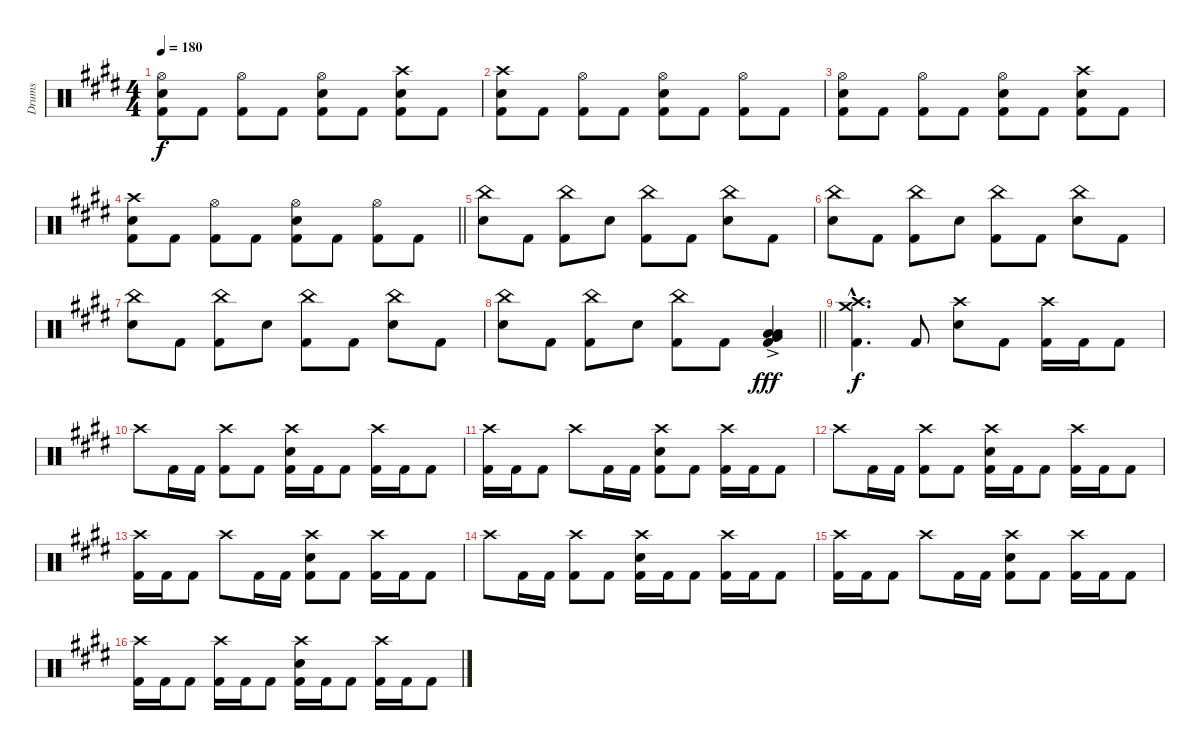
\track ("Drums" "Drums") {instrument percussion}
\staff {score}
\articulation defaults
\ts (4 4)
\tempo 180
\clef neutral
\ks c#minor
("Hi-Hat (open)" "Snare (hit) 2" "Kick (hit) 2").8{dy f} "Kick (hit) 2".8 ("Hi-Hat (open)" "Kick (hit) 2").8 "Kick (hit) 2".8 ("Hi-Hat (open)" "Snare (hit) 2" "Kick (hit) 2").8 "Kick (hit) 2".8 ("Crash high (hit)" "Snare (hit) 2" "Kick (hit) 2").8 "Kick (hit) 2".8 |
("Crash high (hit)" "Snare (hit) 2" "Kick (hit) 2").8 "Kick (hit) 2".8 ("Hi-Hat (open)" "Kick (hit) 2").8 "Kick (hit) 2".8 ("Hi-Hat (open)" "Snare (hit) 2" "Kick (hit) 2").8 "Kick (hit) 2".8 ("Hi-Hat (open)" "Kick (hit) 2").8 "Kick (hit) 2".8 |
("Hi-Hat (open)" "Snare (hit) 2" "Kick (hit) 2").8 "Kick (hit) 2".8 ("Hi-Hat (open)" "Kick (hit) 2").8 "Kick (hit) 2".8 ("Hi-Hat (open)" "Snare (hit) 2" "Kick (hit) 2").8 "Kick (hit) 2".8 ("Crash high (hit)" "Snare (hit) 2" "Kick (hit) 2").8 "Kick (hit) 2".8 |
\barLineRight lightlight
("Crash high (hit)" "Snare (hit) 2" "Kick (hit) 2").8 "Kick (hit) 2".8 ("Hi-Hat (open)" "Kick (hit) 2").8 "Kick (hit) 2".8 ("Hi-Hat (open)" "Snare (hit) 2" "Kick (hit) 2").8 "Kick (hit) 2".8 ("Hi-Hat (open)" "Kick (hit) 2").8 "Kick (hit) 2".8 |
("China (hit)" "Snare (hit) 2").8 "Kick (hit) 2".8 ("China (hit)" "Kick (hit) 2").8 "Snare (hit) 2".8 ("China (hit)" "Kick (hit) 2").8 "Kick (hit) 2".8 ("China (hit)" "Snare (hit) 2").8 "Kick (hit) 2".8 |
("China (hit)" "Snare (hit) 2").8 "Kick (hit) 2".8 ("China (hit)" "Kick (hit) 2").8 "Snare (hit) 2".8 ("China (hit)" "Kick (hit) 2").8 "Kick (hit) 2".8 ("China (hit)" "Snare (hit) 2").8 "Kick (hit) 2".8 |
("China (hit)" "Snare (hit) 2").8 "Kick (hit) 2".8 ("China (hit)" "Kick (hit) 2").8 "Snare (hit) 2".8 ("China (hit)" "Kick (hit) 2").8 "Kick (hit) 2".8 ("China (hit)" "Snare (hit) 2").8 "Kick (hit) 2".8 |
\barLineRight lightlight
("China (hit)" "Snare (hit) 2").8 "Kick (hit) 2".8 ("China (hit)" "Kick (hit) 2").8 "Snare (hit) 2".8 ("China (hit)" "Kick (hit) 2").8 "Kick (hit) 2".8 ("Low Tom (hit)"{ac} "Very Low Tom (hit)"{ac} "Low Floor Tom (hit)"{ac} "Kick (hit) 2"{ac}).4{dy fff} |
("Crash high (hit)"{hac} "Crash medium (hit)"{hac} "Kick (hit) 2"{hac}).4{d dy f} "Kick (hit) 2".8 ("Crash high (hit)" "Snare (hit) 2").8 "Kick (hit) 2".8 ("Crash high (hit)" "Kick (hit) 2").16 "Kick (hit) 2".16 "Kick (hit) 2".8 |
"Crash high (hit)".8 "Kick (hit) 2".16 "Kick (hit) 2".16 ("Crash high (hit)" "Kick (hit) 2").8 "Kick (hit) 2".8 ("Crash high (hit)" "Snare (hit) 2" "Kick (hit) 2").16 "Kick (hit) 2".16 "Kick (hit) 2".8 ("Crash high (hit)" "Kick (hit) 2").16 "Kick (hit) 2".16 "Kick (hit) 2".8 |
("Crash high (hit)" "Kick (hit) 2").16 "Kick (hit) 2".16 "Kick (hit) 2".8 "Crash high (hit)".8 "Kick (hit) 2".16 "Kick (hit) 2".16 ("Crash high (hit)" "Snare (hit) 2" "Kick (hit) 2").8 "Kick (hit) 2".8 ("Crash high (hit)" "Kick (hit) 2").16 "Kick (hit) 2".16 "Kick (hit) 2".8 |
"Crash high (hit)".8 "Kick (hit) 2".16 "Kick (hit) 2".16 ("Crash high (hit)" "Kick (hit) 2").8 "Kick (hit) 2".8 ("Crash high (hit)" "Snare (hit) 2" "Kick (hit) 2").16 "Kick (hit) 2".16 "Kick (hit) 2".8 ("Crash high (hit)" "Kick (hit) 2").16 "Kick (hit) 2".16 "Kick (hit) 2".8 |
("Crash high (hit)" "Kick (hit) 2").16 "Kick (hit) 2".16 "Kick (hit) 2".8 "Crash high (hit)".8 "Kick (hit) 2".16 "Kick (hit) 2".16 ("Crash high (hit)" "Snare (hit) 2" "Kick (hit) 2").8 "Kick (hit) 2".8 ("Crash high (hit)" "Kick (hit) 2").16 "Kick (hit) 2".16 "Kick (hit) 2".8 |
"Crash high (hit)".8 "Kick (hit) 2".16 "Kick (hit) 2".16 ("Crash high (hit)" "Kick (hit) 2").8 "Kick (hit) 2".8 ("Crash high (hit)" "Snare (hit) 2" "Kick (hit) 2").16 "Kick (hit) 2".16 "Kick (hit) 2".8 ("Crash high (hit)" "Kick (hit) 2").16 "Kick (hit) 2".16 "Kick (hit) 2".8 |
("Crash high (hit)" "Kick (hit) 2").16 "Kick (hit) 2".16 "Kick (hit) 2".8 "Crash high (hit)".8 "Kick (hit) 2".16 "Kick (hit) 2".16 ("Crash high (hit)" "Snare (hit) 2" "Kick (hit) 2").8 "Kick (hit) 2".8 ("Crash high (hit)" "Kick (hit) 2").16 "Kick (hit) 2".16 "Kick (hit) 2".8 |
("Crash high (hit)" "Kick (hit) 2").16 "Kick (hit) 2".16 "Kick (hit) 2".8 ("Crash high (hit)" "Kick (hit) 2").16 "Kick (hit) 2".16 "Kick (hit) 2".8 ("Crash high (hit)" "Snare (hit) 2" "Kick (hit) 2").16 "Kick (hit) 2".16 "Kick (hit) 2".8 ("Crash high (hit)" "Kick (hit) 2").16 "Kick (hit) 2".16 "Kick (hit) 2".8
